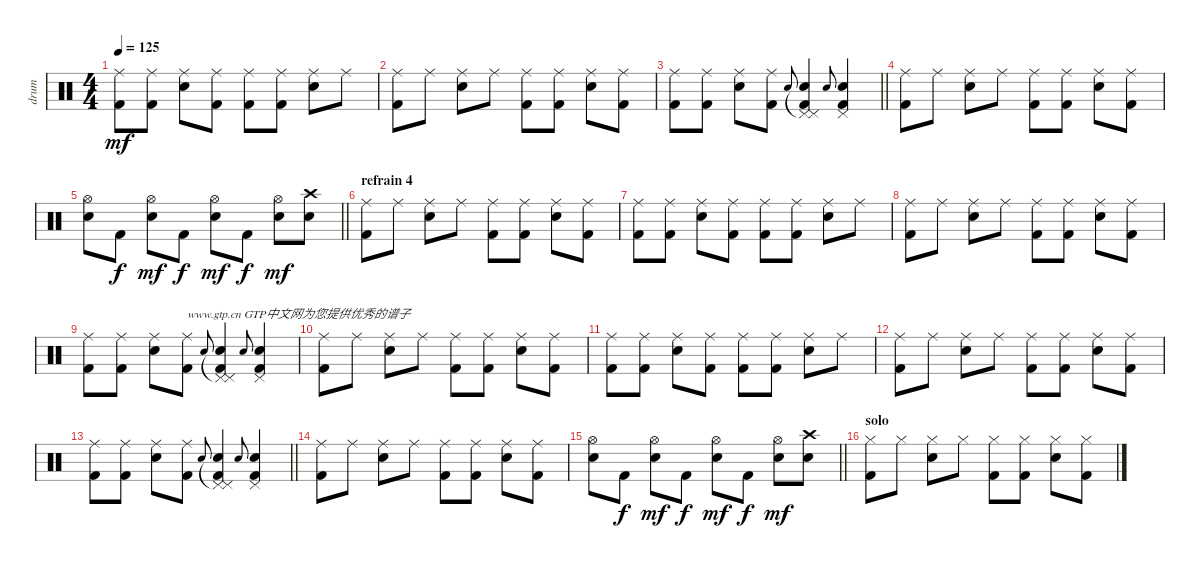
\track ("drum" "drum") {instrument percussion}
\staff {score}
\articulation defaults
\ts (4 4)
\tempo 125
\clef neutral
\ks c
("Ride (middle)" "Kick (hit) 2").8{dy mf} ("Ride (middle)" "Kick (hit) 2").8 ("Ride (middle)" "Electric Snare (hit)").8 ("Ride (middle)" "Kick (hit) 2").8 ("Ride (middle)" "Kick (hit) 2").8 ("Ride (middle)" "Kick (hit) 2").8 ("Ride (middle)" "Electric Snare (hit)").8 "Ride (middle)".8 |
("Ride (middle)" "Kick (hit) 2").8 "Ride (middle)".8 ("Ride (middle)" "Electric Snare (hit)").8 "Ride (middle)".8 ("Ride (middle)" "Kick (hit) 2").8 ("Ride (middle)" "Kick (hit) 2").8 ("Ride (middle)" "Electric Snare (hit)").8 ("Ride (middle)" "Kick (hit) 2").8 |
\barLineRight lightlight
("Ride (middle)" "Kick (hit) 2").8 ("Ride (middle)" "Kick (hit) 2").8 ("Ride (middle)" "Electric Snare (hit)").8 ("Ride (middle)" "Kick (hit) 2").8 "Electric Snare (hit)".8{gr onbeat} ("Pedal Hi-Hat (hit)"{t} "Pedal Hi-Hat (hit)" "Electric Snare (hit)" "Kick (hit) 2").4 "Electric Snare (hit)".8{gr onbeat} ("Pedal Hi-Hat (hit)" "Electric Snare (hit)" "Kick (hit) 2").4 |
("Ride (middle)" "Kick (hit) 2").8 "Ride (middle)".8 ("Ride (middle)" "Electric Snare (hit)").8 "Ride (middle)".8 ("Ride (middle)" "Kick (hit) 2").8 ("Ride (middle)" "Kick (hit) 2").8 ("Ride (middle)" "Electric Snare (hit)").8 ("Ride (middle)" "Kick (hit) 2").8 |
\barLineRight lightlight
("Hi-Hat (open)" "Electric Snare (hit)").8 "Kick (hit) 2".8{dy f} ("Hi-Hat (open)" "Electric Snare (hit)").8{dy mf} "Kick (hit) 2".8{dy f} ("Hi-Hat (open)" "Electric Snare (hit)").8{dy mf} "Kick (hit) 2".8{dy f} ("Hi-Hat (open)" "Electric Snare (hit)").8{dy mf} ("Crash high (hit)" "Electric Snare (hit)").8 |
\section ("" "refrain 4")
("Ride (middle)" "Kick (hit) 2").8 "Ride (middle)".8 ("Ride (middle)" "Electric Snare (hit)").8 "Ride (middle)".8 ("Ride (middle)" "Kick (hit) 2").8 ("Ride (middle)" "Kick (hit) 2").8 ("Ride (middle)" "Electric Snare (hit)").8 ("Ride (middle)" "Kick (hit) 2").8 |
("Ride (middle)" "Kick (hit) 2").8 ("Ride (middle)" "Kick (hit) 2").8 ("Ride (middle)" "Electric Snare (hit)").8 ("Ride (middle)" "Kick (hit) 2").8 ("Ride (middle)" "Kick (hit) 2").8 ("Ride (middle)" "Kick (hit) 2").8 ("Ride (middle)" "Electric Snare (hit)").8 "Ride (middle)".8 |
("Ride (middle)" "Kick (hit) 2").8 "Ride (middle)".8 ("Ride (middle)" "Electric Snare (hit)").8 "Ride (middle)".8 ("Ride (middle)" "Kick (hit) 2").8 ("Ride (middle)" "Kick (hit) 2").8 ("Ride (middle)" "Electric Snare (hit)").8 ("Ride (middle)" "Kick (hit) 2").8 |
("Ride (middle)" "Kick (hit) 2").8 ("Ride (middle)" "Kick (hit) 2").8 ("Ride (middle)" "Electric Snare (hit)").8 ("Ride (middle)" "Kick (hit) 2").8{txt "www.gtp.cn GTP中文网为您提供优秀的谱子"} "Electric Snare (hit)".8{gr onbeat} ("Pedal Hi-Hat (hit)"{t} "Pedal Hi-Hat (hit)" "Electric Snare (hit)" "Kick (hit) 2").4 "Electric Snare (hit)".8{gr onbeat} ("Pedal Hi-Hat (hit)" "Electric Snare (hit)" "Kick (hit) 2").4 |
("Ride (middle)" "Kick (hit) 2").8 "Ride (middle)".8 ("Ride (middle)" "Electric Snare (hit)").8 "Ride (middle)".8 ("Ride (middle)" "Kick (hit) 2").8 ("Ride (middle)" "Kick (hit) 2").8 ("Ride (middle)" "Electric Snare (hit)").8 ("Ride (middle)" "Kick (hit) 2").8 |
("Ride (middle)" "Kick (hit) 2").8 ("Ride (middle)" "Kick (hit) 2").8 ("Ride (middle)" "Electric Snare (hit)").8 ("Ride (middle)" "Kick (hit) 2").8 ("Ride (middle)" "Kick (hit) 2").8 ("Ride (middle)" "Kick (hit) 2").8 ("Ride (middle)" "Electric Snare (hit)").8 "Ride (middle)".8 |
("Ride (middle)" "Kick (hit) 2").8 "Ride (middle)".8 ("Ride (middle)" "Electric Snare (hit)").8 "Ride (middle)".8 ("Ride (middle)" "Kick (hit) 2").8 ("Ride (middle)" "Kick (hit) 2").8 ("Ride (middle)" "Electric Snare (hit)").8 ("Ride (middle)" "Kick (hit) 2").8 |
\barLineRight lightlight
("Ride (middle)" "Kick (hit) 2").8 ("Ride (middle)" "Kick (hit) 2").8 ("Ride (middle)" "Electric Snare (hit)").8 ("Ride (middle)" "Kick (hit) 2").8 "Electric Snare (hit)".8{gr onbeat} ("Pedal Hi-Hat (hit)"{t} "Pedal Hi-Hat (hit)" "Electric Snare (hit)" "Kick (hit) 2").4 "Electric Snare (hit)".8{gr onbeat} ("Pedal Hi-Hat (hit)" "Electric Snare (hit)" "Kick (hit) 2").4 |
("Ride (middle)" "Kick (hit) 2").8 "Ride (middle)".8 ("Ride (middle)" "Electric Snare (hit)").8 "Ride (middle)".8 ("Ride (middle)" "Kick (hit) 2").8 ("Ride (middle)" "Kick (hit) 2").8 ("Ride (middle)" "Electric Snare (hit)").8 ("Ride (middle)" "Kick (hit) 2").8 |
\barLineRight lightlight
("Hi-Hat (open)" "Electric Snare (hit)").8 "Kick (hit) 2".8{dy f} ("Hi-Hat (open)" "Electric Snare (hit)").8{dy mf} "Kick (hit) 2".8{dy f} ("Hi-Hat (open)" "Electric Snare (hit)").8{dy mf} "Kick (hit) 2".8{dy f} ("Hi-Hat (open)" "Electric Snare (hit)").8{dy mf} ("Crash high (hit)" "Electric Snare (hit)").8 |
\section ("" "solo")
("Hi-Hat (closed)" "Kick (hit) 2").8 "Hi-Hat (closed)".8 ("Hi-Hat (closed)" "Electric Snare (hit)").8 "Hi-Hat (closed)".8 ("Hi-Hat (closed)" "Kick (hit) 2").8 ("Hi-Hat (closed)" "Kick (hit) 2").8 ("Hi-Hat (closed)" "Electric Snare (hit)").8 ("Hi-Hat (closed)" "Kick (hit) 2").8
